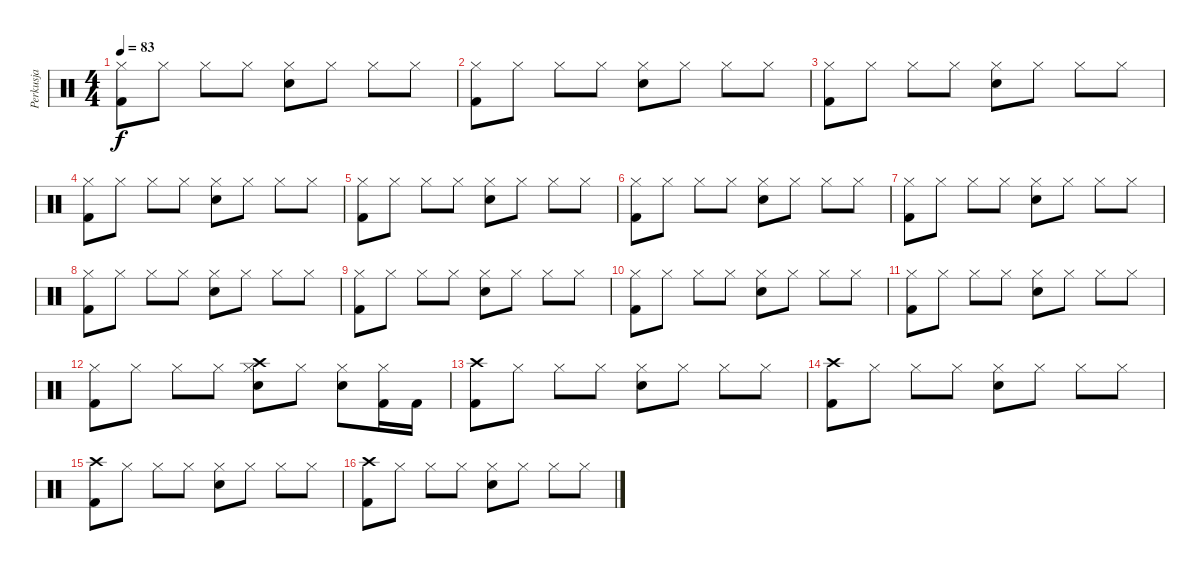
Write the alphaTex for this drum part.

\track ("Perkusja" "Perkusja") {instrument percussion}
\staff {score}
\articulation defaults
\ts (4 4)
\tempo 83
\clef neutral
\ks c
("Hi-Hat (closed)" "Kick (hit) 2").8{dy f} "Hi-Hat (closed)".8 "Hi-Hat (closed)".8 "Hi-Hat (closed)".8 ("Hi-Hat (closed)" "Snare (hit) 2").8 "Hi-Hat (closed)".8 "Hi-Hat (closed)".8 "Hi-Hat (closed)".8 |
("Hi-Hat (closed)" "Kick (hit) 2").8 "Hi-Hat (closed)".8 "Hi-Hat (closed)".8 "Hi-Hat (closed)".8 ("Hi-Hat (closed)" "Snare (hit) 2").8 "Hi-Hat (closed)".8 "Hi-Hat (closed)".8 "Hi-Hat (closed)".8 |
("Hi-Hat (closed)" "Kick (hit) 2").8 "Hi-Hat (closed)".8 "Hi-Hat (closed)".8 "Hi-Hat (closed)".8 ("Hi-Hat (closed)" "Snare (hit) 2").8 "Hi-Hat (closed)".8 "Hi-Hat (closed)".8 "Hi-Hat (closed)".8 |
("Hi-Hat (closed)" "Kick (hit) 2").8 "Hi-Hat (closed)".8 "Hi-Hat (closed)".8 "Hi-Hat (closed)".8 ("Hi-Hat (closed)" "Snare (hit) 2").8 "Hi-Hat (closed)".8 "Hi-Hat (closed)".8 "Hi-Hat (closed)".8 |
("Hi-Hat (closed)" "Kick (hit) 2").8 "Hi-Hat (closed)".8 "Hi-Hat (closed)".8 "Hi-Hat (closed)".8 ("Hi-Hat (closed)" "Snare (hit) 2").8 "Hi-Hat (closed)".8 "Hi-Hat (closed)".8 "Hi-Hat (closed)".8 |
("Hi-Hat (closed)" "Kick (hit) 2").8 "Hi-Hat (closed)".8 "Hi-Hat (closed)".8 "Hi-Hat (closed)".8 ("Hi-Hat (closed)" "Snare (hit) 2").8 "Hi-Hat (closed)".8 "Hi-Hat (closed)".8 "Hi-Hat (closed)".8 |
("Hi-Hat (closed)" "Kick (hit) 2").8 "Hi-Hat (closed)".8 "Hi-Hat (closed)".8 "Hi-Hat (closed)".8 ("Hi-Hat (closed)" "Snare (hit) 2").8 "Hi-Hat (closed)".8 "Hi-Hat (closed)".8 "Hi-Hat (closed)".8 |
("Hi-Hat (closed)" "Kick (hit) 2").8 "Hi-Hat (closed)".8 "Hi-Hat (closed)".8 "Hi-Hat (closed)".8 ("Hi-Hat (closed)" "Snare (hit) 2").8 "Hi-Hat (closed)".8 "Hi-Hat (closed)".8 "Hi-Hat (closed)".8 |
("Hi-Hat (closed)" "Kick (hit) 2").8 "Hi-Hat (closed)".8 "Hi-Hat (closed)".8 "Hi-Hat (closed)".8 ("Hi-Hat (closed)" "Snare (hit) 2").8 "Hi-Hat (closed)".8 "Hi-Hat (closed)".8 "Hi-Hat (closed)".8 |
("Hi-Hat (closed)" "Kick (hit) 2").8 "Hi-Hat (closed)".8 "Hi-Hat (closed)".8 "Hi-Hat (closed)".8 ("Hi-Hat (closed)" "Snare (hit) 2").8 "Hi-Hat (closed)".8 "Hi-Hat (closed)".8 "Hi-Hat (closed)".8 |
("Hi-Hat (closed)" "Kick (hit) 2").8 "Hi-Hat (closed)".8 "Hi-Hat (closed)".8 "Hi-Hat (closed)".8 ("Hi-Hat (closed)" "Snare (hit) 2").8 "Hi-Hat (closed)".8 "Hi-Hat (closed)".8 "Hi-Hat (closed)".8 |
("Hi-Hat (closed)" "Kick (hit) 2").8 "Hi-Hat (closed)".8 "Hi-Hat (closed)".8 "Hi-Hat (closed)".8 ("Hi-Hat (closed)" "Crash high (hit)" "Snare (hit) 2").8 "Hi-Hat (closed)".8 ("Hi-Hat (closed)" "Snare (hit) 2").8 ("Hi-Hat (closed)" "Kick (hit) 2").16 "Kick (hit) 2".16 |
("Crash high (hit)" "Kick (hit) 2").8 "Hi-Hat (closed)".8 "Hi-Hat (closed)".8 "Hi-Hat (closed)".8 ("Hi-Hat (closed)" "Snare (hit) 2").8 "Hi-Hat (closed)".8 "Hi-Hat (closed)".8 "Hi-Hat (closed)".8 |
("Crash high (hit)" "Kick (hit) 2").8 "Hi-Hat (closed)".8 "Hi-Hat (closed)".8 "Hi-Hat (closed)".8 ("Hi-Hat (closed)" "Snare (hit) 2").8 "Hi-Hat (closed)".8 "Hi-Hat (closed)".8 "Hi-Hat (closed)".8 |
("Crash high (hit)" "Kick (hit) 2").8 "Hi-Hat (closed)".8 "Hi-Hat (closed)".8 "Hi-Hat (closed)".8 ("Hi-Hat (closed)" "Snare (hit) 2").8 "Hi-Hat (closed)".8 "Hi-Hat (closed)".8 "Hi-Hat (closed)".8 |
("Crash high (hit)" "Kick (hit) 2").8 "Hi-Hat (closed)".8 "Hi-Hat (closed)".8 "Hi-Hat (closed)".8 ("Hi-Hat (closed)" "Snare (hit) 2").8 "Hi-Hat (closed)".8 "Hi-Hat (closed)".8 "Hi-Hat (closed)".8
